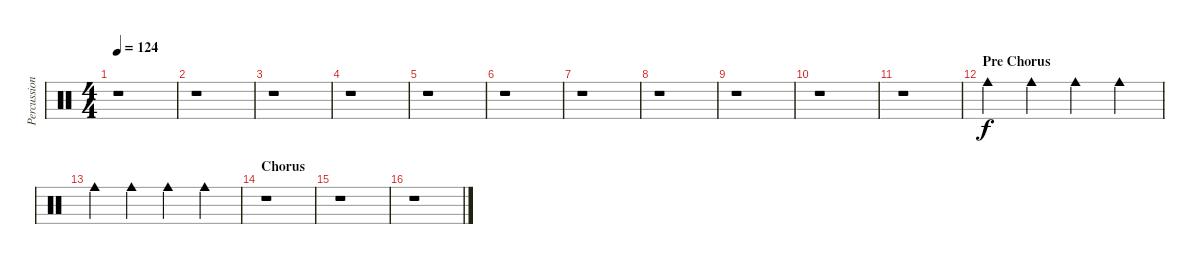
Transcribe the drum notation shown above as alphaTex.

\track ("Percussion" "Percussion") {instrument percussion}
\staff {score}
\articulation defaults
\ts (4 4)
\tempo 124
\clef neutral
\ks c
r.1{dy ppp} |
r.1 |
r.1 |
r.1 |
r.1 |
r.1 |
r.1 |
r.1 |
r.1 |
r.1 |
r.1 |
\section ("" "Pre Chorus")
"Cowbell medium (hit)".4{dy f} "Cowbell medium (hit)".4 "Cowbell medium (hit)".4 "Cowbell medium (hit)".4 |
"Cowbell medium (hit)".4 "Cowbell medium (hit)".4 "Cowbell medium (hit)".4 "Cowbell medium (hit)".4 |
\section ("" "Chorus")
r.1 |
r.1 |
r.1
